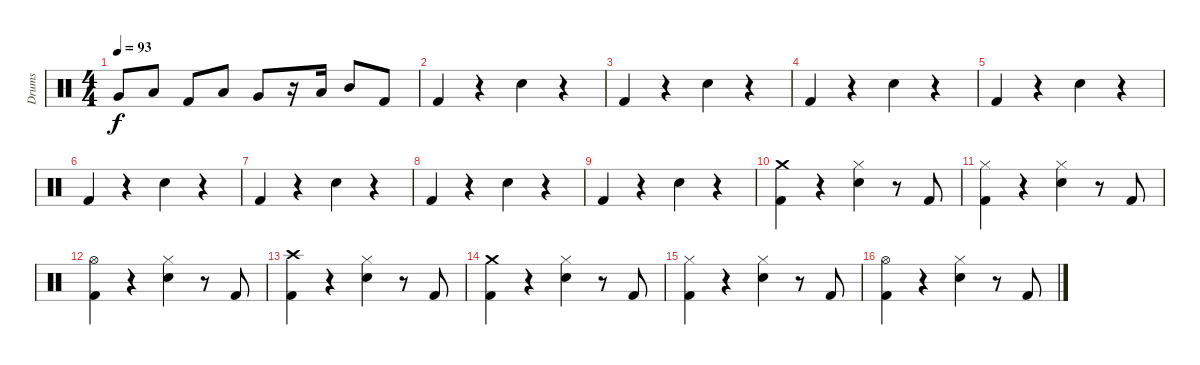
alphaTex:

\track ("Drums" "Drums") {instrument percussion}
\staff {score}
\articulation defaults
\ts (4 4)
\tempo 93
\clef neutral
\ks c "Very Low Tom (hit)".8{dy f} "Low Tom (hit)".8 "Kick (hit) 2".8 "Low Tom (hit)".8 "Very Low Tom (hit)".8
r.16 "Low Tom (hit)".16 "Mid Tom (hit)".8 "Kick (hit) 2".8 |
"Kick (hit) 2".4 r.4 "Snare (hit) 2".4 r.4 |
"Kick (hit) 2".4 r.4 "Snare (hit) 2".4 r.4 |
"Kick (hit) 2".4 r.4 "Snare (hit) 2".4 r.4 |
"Kick (hit) 2".4 r.4 "Snare (hit) 2".4 r.4 |
"Kick (hit) 2".4 r.4 "Snare (hit) 2".4 r.4 |
"Kick (hit) 2".4 r.4 "Snare (hit) 2".4 r.4 |
"Kick (hit) 2".4 r.4 "Snare (hit) 2".4 r.4 |
"Kick (hit) 2".4 r.4 "Snare (hit) 2".4 r.4 |
("Crash medium (hit)" "Kick (hit) 2").4 r.4 ("Hi-Hat (closed)" "Snare (hit) 2").4 r.8 "Kick (hit) 2".8 |
("Hi-Hat (closed)" "Kick (hit) 2").4 r.4 ("Hi-Hat (closed)" "Snare (hit) 2").4 r.8 "Kick (hit) 2".8 |
("Hi-Hat (open)" "Kick (hit) 2").4 r.4 ("Hi-Hat (closed)" "Snare (hit) 2").4 r.8 "Kick (hit) 2".8 |
("Crash high (hit)" "Kick (hit) 2").4 r.4 ("Hi-Hat (closed)" "Snare (hit) 2").4 r.8 "Kick (hit) 2".8 |
("Crash medium (hit)" "Kick (hit) 2").4 r.4 ("Hi-Hat (closed)" "Snare (hit) 2").4 r.8 "Kick (hit) 2".8 |
("Hi-Hat (closed)" "Kick (hit) 2").4 r.4 ("Hi-Hat (closed)" "Snare (hit) 2").4 r.8 "Kick (hit) 2".8 |
("Hi-Hat (open)" "Kick (hit) 2").4 r.4 ("Hi-Hat (closed)" "Snare (hit) 2").4 r.8 "Kick (hit) 2".8
